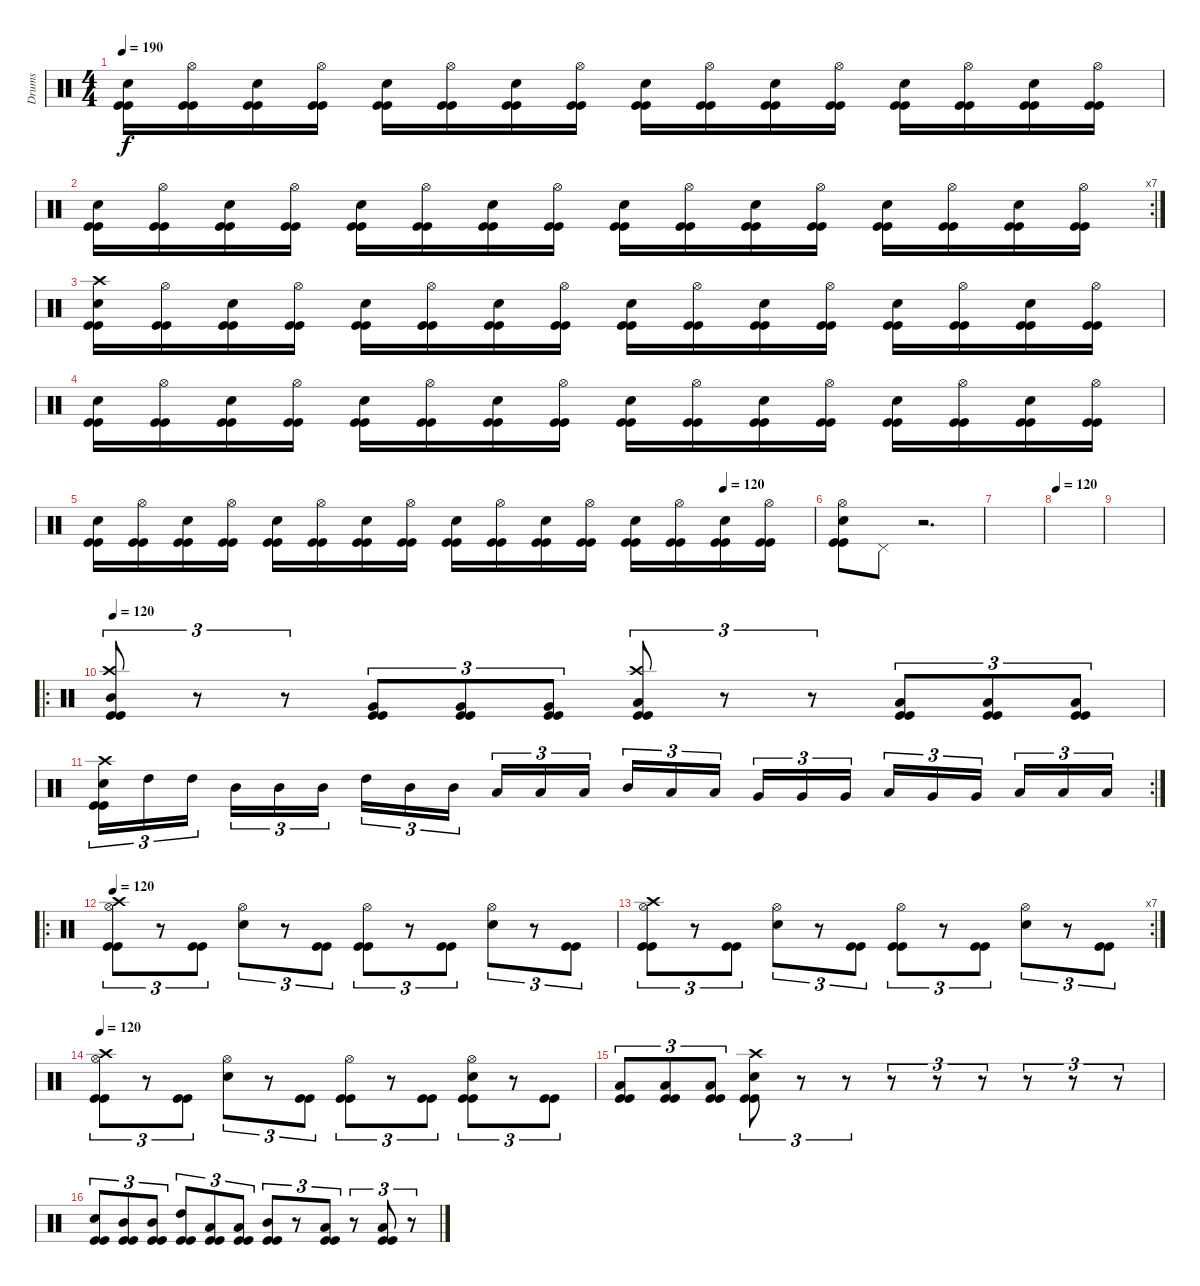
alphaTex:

\track ("Drums" "Drums") {instrument percussion}
\staff {score}
\articulation defaults
\ts (4 4)
\tempo 190
\clef neutral
\ks c
("Snare (hit) 2" "Kick (hit)" "Kick (hit)").16{dy f} ("Hi-Hat (open)" "Kick (hit)" "Kick (hit)").16 ("Snare (hit) 2" "Kick (hit)" "Kick (hit)").16 ("Hi-Hat (open)" "Kick (hit)" "Kick (hit)").16 ("Snare (hit) 2" "Kick (hit)" "Kick (hit)").16 ("Hi-Hat (open)" "Kick (hit)" "Kick (hit)").16 ("Snare (hit) 2" "Kick (hit)" "Kick (hit)").16 ("Hi-Hat (open)" "Kick (hit)" "Kick (hit)").16 ("Snare (hit) 2" "Kick (hit)" "Kick (hit)").16 ("Hi-Hat (open)" "Kick (hit)" "Kick (hit)").16 ("Snare (hit) 2" "Kick (hit)" "Kick (hit)").16 ("Hi-Hat (open)" "Kick (hit)" "Kick (hit)").16 ("Snare (hit) 2" "Kick (hit)" "Kick (hit)").16 ("Hi-Hat (open)" "Kick (hit)" "Kick (hit)").16 ("Snare (hit) 2" "Kick (hit)" "Kick (hit)").16 ("Hi-Hat (open)" "Kick (hit)" "Kick (hit)").16 |
\rc 7
("Snare (hit) 2" "Kick (hit)" "Kick (hit)").16 ("Hi-Hat (open)" "Kick (hit)" "Kick (hit)").16 ("Snare (hit) 2" "Kick (hit)" "Kick (hit)").16 ("Hi-Hat (open)" "Kick (hit)" "Kick (hit)").16 ("Snare (hit) 2" "Kick (hit)" "Kick (hit)").16 ("Hi-Hat (open)" "Kick (hit)" "Kick (hit)").16 ("Snare (hit) 2" "Kick (hit)" "Kick (hit)").16 ("Hi-Hat (open)" "Kick (hit)" "Kick (hit)").16 ("Snare (hit) 2" "Kick (hit)" "Kick (hit)").16 ("Hi-Hat (open)" "Kick (hit)" "Kick (hit)").16 ("Snare (hit) 2" "Kick (hit)" "Kick (hit)").16 ("Hi-Hat (open)" "Kick (hit)" "Kick (hit)").16 ("Snare (hit) 2" "Kick (hit)" "Kick (hit)").16 ("Hi-Hat (open)" "Kick (hit)" "Kick (hit)").16 ("Snare (hit) 2" "Kick (hit)" "Kick (hit)").16 ("Hi-Hat (open)" "Kick (hit)" "Kick (hit)").16 |
("Crash high (hit)" "Snare (hit) 2" "Kick (hit)" "Kick (hit)").16 ("Hi-Hat (open)" "Kick (hit)" "Kick (hit)").16 ("Snare (hit) 2" "Kick (hit)" "Kick (hit)").16 ("Hi-Hat (open)" "Kick (hit)" "Kick (hit)").16 ("Snare (hit) 2" "Kick (hit)" "Kick (hit)").16 ("Hi-Hat (open)" "Kick (hit)" "Kick (hit)").16 ("Snare (hit) 2" "Kick (hit)" "Kick (hit)").16 ("Hi-Hat (open)" "Kick (hit)" "Kick (hit)").16 ("Snare (hit) 2" "Kick (hit)" "Kick (hit)").16 ("Hi-Hat (open)" "Kick (hit)" "Kick (hit)").16 ("Snare (hit) 2" "Kick (hit)" "Kick (hit)").16 ("Hi-Hat (open)" "Kick (hit)" "Kick (hit)").16 ("Snare (hit) 2" "Kick (hit)" "Kick (hit)").16 ("Hi-Hat (open)" "Kick (hit)" "Kick (hit)").16 ("Snare (hit) 2" "Kick (hit)" "Kick (hit)").16 ("Hi-Hat (open)" "Kick (hit)" "Kick (hit)").16 |
("Snare (hit) 2" "Kick (hit)" "Kick (hit)").16 ("Hi-Hat (open)" "Kick (hit)" "Kick (hit)").16 ("Snare (hit) 2" "Kick (hit)" "Kick (hit)").16 ("Hi-Hat (open)" "Kick (hit)" "Kick (hit)").16 ("Snare (hit) 2" "Kick (hit)" "Kick (hit)").16 ("Hi-Hat (open)" "Kick (hit)" "Kick (hit)").16 ("Snare (hit) 2" "Kick (hit)" "Kick (hit)").16 ("Hi-Hat (open)" "Kick (hit)" "Kick (hit)").16 ("Snare (hit) 2" "Kick (hit)" "Kick (hit)").16 ("Hi-Hat (open)" "Kick (hit)" "Kick (hit)").16 ("Snare (hit) 2" "Kick (hit)" "Kick (hit)").16 ("Hi-Hat (open)" "Kick (hit)" "Kick (hit)").16 ("Snare (hit) 2" "Kick (hit)" "Kick (hit)").16 ("Hi-Hat (open)" "Kick (hit)" "Kick (hit)").16 ("Snare (hit) 2" "Kick (hit)" "Kick (hit)").16 ("Hi-Hat (open)" "Kick (hit)" "Kick (hit)").16 |
\tempo (120 0.875)
("Snare (hit) 2" "Kick (hit)" "Kick (hit)").16 ("Hi-Hat (open)" "Kick (hit)" "Kick (hit)").16 ("Snare (hit) 2" "Kick (hit)" "Kick (hit)").16 ("Hi-Hat (open)" "Kick (hit)" "Kick (hit)").16 ("Snare (hit) 2" "Kick (hit)" "Kick (hit)").16 ("Hi-Hat (open)" "Kick (hit)" "Kick (hit)").16 ("Snare (hit) 2" "Kick (hit)" "Kick (hit)").16 ("Hi-Hat (open)" "Kick (hit)" "Kick (hit)").16 ("Snare (hit) 2" "Kick (hit)" "Kick (hit)").16 ("Hi-Hat (open)" "Kick (hit)" "Kick (hit)").16 ("Snare (hit) 2" "Kick (hit)" "Kick (hit)").16 ("Hi-Hat (open)" "Kick (hit)" "Kick (hit)").16 ("Snare (hit) 2" "Kick (hit)" "Kick (hit)").16 ("Hi-Hat (open)" "Kick (hit)" "Kick (hit)").16 ("Snare (hit) 2" "Kick (hit)" "Kick (hit)").16 ("Hi-Hat (open)" "Kick (hit)" "Kick (hit)").16 |
("Snare (hit) 2" "Hi-Hat (open)" "Kick (hit)" "Kick (hit)").8 "Pedal Hi-Hat (hit)".8 r.2{d} |
|
\tempo 120
|
|
\ro
\tempo 120
("Crash high (hit)" "Mid Tom (hit)" "Kick (hit)" "Kick (hit)").8{tu (3 2)} r.8{tu (3 2)} r.8{tu (3 2)} ("Very Low Tom (hit)" "Kick (hit)" "Kick (hit)").8{tu (3 2)} ("Very Low Tom (hit)" "Kick (hit)" "Kick (hit)").8{tu (3 2)} ("Very Low Tom (hit)" "Kick (hit)" "Kick (hit)").8{tu (3 2)} ("Crash high (hit)" "Low Tom (hit)" "Kick (hit)" "Kick (hit)").8{tu (3 2)} r.8{tu (3 2)} r.8{tu (3 2)} ("Low Floor Tom (hit)" "Kick (hit)" "Kick (hit)").8{tu (3 2)} ("Low Floor Tom (hit)" "Kick (hit)" "Kick (hit)").8{tu (3 2)} ("Low Floor Tom (hit)" "Kick (hit)" "Kick (hit)").8{tu (3 2)} |
\rc 2
("Crash high (hit)" "Snare (hit) 2" "Kick (hit)" "Kick (hit)").16{tu (3 2)} "High Tom (hit)".16{tu (3 2)} "High Tom (hit)".16{tu (3 2)} "Mid Tom (hit)".16{tu (3 2)} "Mid Tom (hit)".16{tu (3 2)} "Mid Tom (hit)".16{tu (3 2)} "High Tom (hit)".16{tu (3 2)} "Mid Tom (hit)".16{tu (3 2)} "Mid Tom (hit)".16{tu (3 2)} "Low Tom (hit)".16{tu (3 2)} "Low Tom (hit)".16{tu (3 2)} "Low Tom (hit)".16{tu (3 2)} "Mid Tom (hit)".16{tu (3 2)} "Low Tom (hit)".16{tu (3 2)} "Low Tom (hit)".16{tu (3 2)} "Very Low Tom (hit)".16{tu (3 2)} "Very Low Tom (hit)".16{tu (3 2)} "Very Low Tom (hit)".16{tu (3 2)} "Low Tom (hit)".16{tu (3 2)} "Very Low Tom (hit)".16{tu (3 2)} "Very Low Tom (hit)".16{tu (3 2)} "Low Floor Tom (hit)".16{tu (3 2)} "Low Floor Tom (hit)".16{tu (3 2)} "Low Floor Tom (hit)".16{tu (3 2)} |
\ro
\tempo 120
("Crash high (hit)" "Hi-Hat (open)" "Kick (hit)" "Kick (hit)").8{tu (3 2)} r.8{tu (3 2)} ("Kick (hit)" "Kick (hit)").8{tu (3 2)} ("Snare (hit) 2" "Hi-Hat (open)").8{tu (3 2)} r.8{tu (3 2)} ("Kick (hit)" "Kick (hit)").8{tu (3 2)} ("Hi-Hat (open)" "Kick (hit)" "Kick (hit)").8{tu (3 2)} r.8{tu (3 2)} ("Kick (hit)" "Kick (hit)").8{tu (3 2)} ("Snare (hit) 2" "Hi-Hat (open)").8{tu (3 2)} r.8{tu (3 2)} ("Kick (hit)" "Kick (hit)").8{tu (3 2)} |
\rc 7
("Crash high (hit)" "Hi-Hat (open)" "Kick (hit)" "Kick (hit)").8{tu (3 2)} r.8{tu (3 2)} ("Kick (hit)" "Kick (hit)").8{tu (3 2)} ("Snare (hit) 2" "Hi-Hat (open)").8{tu (3 2)} r.8{tu (3 2)} ("Kick (hit)" "Kick (hit)").8{tu (3 2)} ("Hi-Hat (open)" "Kick (hit)" "Kick (hit)").8{tu (3 2)} r.8{tu (3 2)} ("Kick (hit)" "Kick (hit)").8{tu (3 2)} ("Snare (hit) 2" "Hi-Hat (open)").8{tu (3 2)} r.8{tu (3 2)} ("Kick (hit)" "Kick (hit)").8{tu (3 2)} |
\tempo 120
("Crash high (hit)" "Hi-Hat (open)" "Kick (hit)" "Kick (hit)").8{tu (3 2)} r.8{tu (3 2)} ("Kick (hit)" "Kick (hit)").8{tu (3 2)} ("Snare (hit) 2" "Hi-Hat (open)").8{tu (3 2)} r.8{tu (3 2)} ("Kick (hit)" "Kick (hit)").8{tu (3 2)} ("Hi-Hat (open)" "Kick (hit)" "Kick (hit)").8{tu (3 2)} r.8{tu (3 2)} ("Kick (hit)" "Kick (hit)").8{tu (3 2)} ("Snare (hit) 2" "Hi-Hat (open)" "Kick (hit)" "Kick (hit)").8{tu (3 2)} r.8{tu (3 2)} ("Kick (hit)" "Kick (hit)").8{tu (3 2)} |
("Low Tom (hit)" "Kick (hit)" "Kick (hit)").8{tu (3 2)} ("Low Tom (hit)" "Kick (hit)" "Kick (hit)").8{tu (3 2)} ("Low Tom (hit)" "Kick (hit)" "Kick (hit)").8{tu (3 2)} ("Crash high (hit)" "Snare (hit) 2" "Kick (hit)" "Kick (hit)").8{tu (3 2)} r.8{tu (3 2)} r.8{tu (3 2)} r.8{tu (3 2)} r.8{tu (3 2)} r.8{tu (3 2)} r.8{tu (3 2)} r.8{tu (3 2)} r.8{tu (3 2)} |
("Snare (hit) 2" "Kick (hit)" "Kick (hit)").8{tu (3 2)} ("Mid Tom (hit)" "Kick (hit)" "Kick (hit)").8{tu (3 2)} ("Mid Tom (hit)" "Kick (hit)" "Kick (hit)").8{tu (3 2)} ("High Tom (hit)" "Kick (hit)" "Kick (hit)").8{tu (3 2)} ("Low Tom (hit)" "Kick (hit)" "Kick (hit)").8{tu (3 2)} ("Low Tom (hit)" "Kick (hit)" "Kick (hit)").8{tu (3 2)} ("Mid Tom (hit)" "Kick (hit)" "Kick (hit)").8{tu (3 2)} r.8{tu (3 2)} ("Low Tom (hit)" "Kick (hit)" "Kick (hit)").8{tu (3 2)} r.8{tu (3 2)} ("Low Floor Tom (hit)" "Kick (hit)" "Kick (hit)").8{tu (3 2)} r.8{tu (3 2)}
